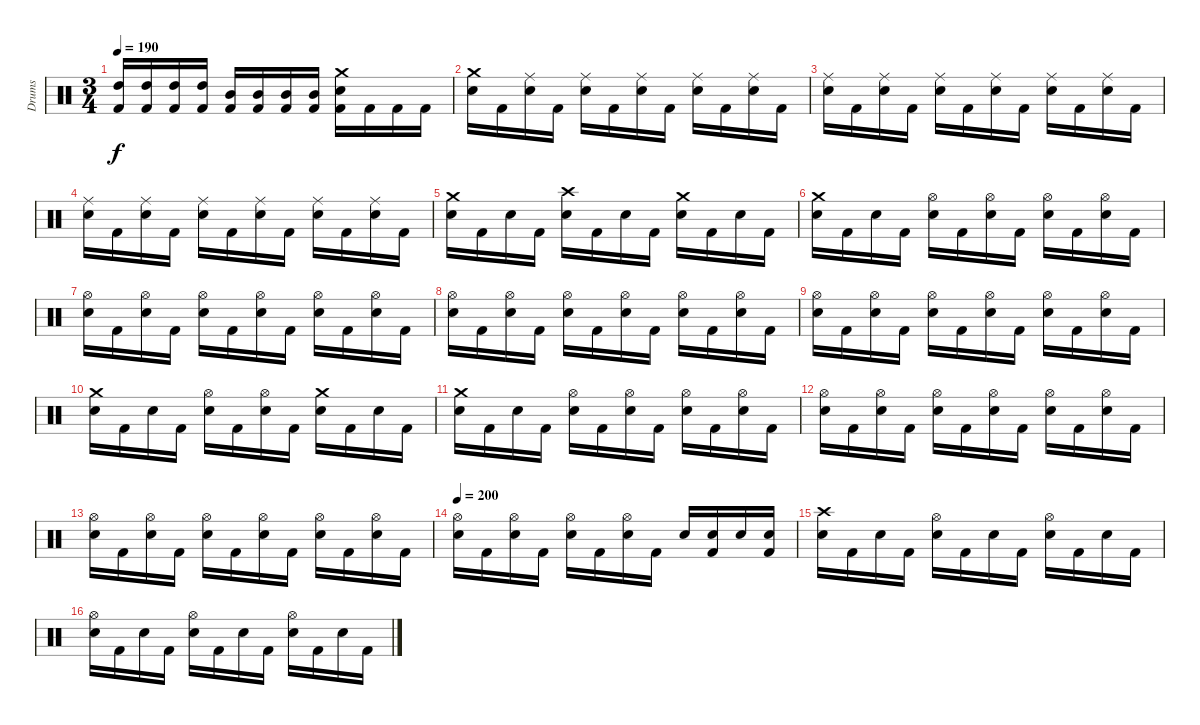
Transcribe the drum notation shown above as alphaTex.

\track ("Drums" "Drums") {instrument percussion}
\staff {score}
\articulation defaults
\ts (3 4)
\tempo 190
\clef neutral
\ks c
("Kick (hit) 2" "High Tom (hit)").16{dy f} ("Kick (hit) 2" "High Tom (hit)").16 ("Kick (hit) 2" "High Tom (hit)").16 ("Kick (hit) 2" "High Tom (hit)").16 ("Kick (hit) 2" "Mid Tom (hit)").16 ("Kick (hit) 2" "Mid Tom (hit)").16 ("Kick (hit) 2" "Mid Tom (hit)").16 ("Kick (hit) 2" "Mid Tom (hit)").16 ("Kick (hit) 2" "Snare (hit) 2" "Crash medium (hit)").16 "Kick (hit) 2".16 "Kick (hit) 2".16 "Kick (hit) 2".16 |
("Snare (hit) 2" "Crash medium (hit)").16 "Kick (hit) 2".16 ("Snare (hit) 2" "Ride (middle)").16 "Kick (hit) 2".16 ("Snare (hit) 2" "Ride (middle)").16 "Kick (hit) 2".16 ("Snare (hit) 2" "Ride (middle)").16 "Kick (hit) 2".16 ("Snare (hit) 2" "Ride (middle)").16 "Kick (hit) 2".16 ("Snare (hit) 2" "Ride (middle)").16 "Kick (hit) 2".16 |
("Snare (hit) 2" "Ride (middle)").16 "Kick (hit) 2".16 ("Snare (hit) 2" "Ride (middle)").16 "Kick (hit) 2".16 ("Snare (hit) 2" "Ride (middle)").16 "Kick (hit) 2".16 ("Snare (hit) 2" "Ride (middle)").16 "Kick (hit) 2".16 ("Snare (hit) 2" "Ride (middle)").16 "Kick (hit) 2".16 ("Snare (hit) 2" "Ride (middle)").16 "Kick (hit) 2".16 |
("Snare (hit) 2" "Ride (middle)").16 "Kick (hit) 2".16 ("Snare (hit) 2" "Ride (middle)").16 "Kick (hit) 2".16 ("Snare (hit) 2" "Ride (middle)").16 "Kick (hit) 2".16 ("Snare (hit) 2" "Ride (middle)").16 "Kick (hit) 2".16 ("Snare (hit) 2" "Ride (middle)").16 "Kick (hit) 2".16 ("Snare (hit) 2" "Ride (middle)").16 "Kick (hit) 2".16 |
("Snare (hit) 2" "Crash medium (hit)").16 "Kick (hit) 2".16 "Snare (hit) 2".16 "Kick (hit) 2".16 ("Snare (hit) 2" "Crash high (hit)").16 "Kick (hit) 2".16 "Snare (hit) 2".16 "Kick (hit) 2".16 ("Snare (hit) 2" "Crash medium (hit)").16 "Kick (hit) 2".16 "Snare (hit) 2".16 "Kick (hit) 2".16 |
("Snare (hit) 2" "Crash medium (hit)").16 "Kick (hit) 2".16 "Snare (hit) 2".16 "Kick (hit) 2".16 ("Snare (hit) 2" "Hi-Hat (open)").16 "Kick (hit) 2".16 ("Snare (hit) 2" "Hi-Hat (open)").16 "Kick (hit) 2".16 ("Snare (hit) 2" "Hi-Hat (open)").16 "Kick (hit) 2".16 ("Snare (hit) 2" "Hi-Hat (open)").16 "Kick (hit) 2".16 |
("Snare (hit) 2" "Hi-Hat (open)").16 "Kick (hit) 2".16 ("Snare (hit) 2" "Hi-Hat (open)").16 "Kick (hit) 2".16 ("Snare (hit) 2" "Hi-Hat (open)").16 "Kick (hit) 2".16 ("Snare (hit) 2" "Hi-Hat (open)").16 "Kick (hit) 2".16 ("Snare (hit) 2" "Hi-Hat (open)").16 "Kick (hit) 2".16 ("Snare (hit) 2" "Hi-Hat (open)").16 "Kick (hit) 2".16 |
("Snare (hit) 2" "Hi-Hat (open)").16 "Kick (hit) 2".16 ("Snare (hit) 2" "Hi-Hat (open)").16 "Kick (hit) 2".16 ("Snare (hit) 2" "Hi-Hat (open)").16 "Kick (hit) 2".16 ("Snare (hit) 2" "Hi-Hat (open)").16 "Kick (hit) 2".16 ("Snare (hit) 2" "Hi-Hat (open)").16 "Kick (hit) 2".16 ("Snare (hit) 2" "Hi-Hat (open)").16 "Kick (hit) 2".16 |
("Snare (hit) 2" "Hi-Hat (open)").16 "Kick (hit) 2".16 ("Snare (hit) 2" "Hi-Hat (open)").16 "Kick (hit) 2".16 ("Snare (hit) 2" "Hi-Hat (open)").16 "Kick (hit) 2".16 ("Snare (hit) 2" "Hi-Hat (open)").16 "Kick (hit) 2".16 ("Snare (hit) 2" "Hi-Hat (open)").16 "Kick (hit) 2".16 ("Snare (hit) 2" "Hi-Hat (open)").16 "Kick (hit) 2".16 |
("Snare (hit) 2" "Crash medium (hit)").16 "Kick (hit) 2".16 "Snare (hit) 2".16 "Kick (hit) 2".16 ("Snare (hit) 2" "Hi-Hat (open)").16 "Kick (hit) 2".16 ("Snare (hit) 2" "Hi-Hat (open)").16 "Kick (hit) 2".16 ("Snare (hit) 2" "Crash medium (hit)").16 "Kick (hit) 2".16 "Snare (hit) 2".16 "Kick (hit) 2".16 |
("Snare (hit) 2" "Crash medium (hit)").16 "Kick (hit) 2".16 "Snare (hit) 2".16 "Kick (hit) 2".16 ("Snare (hit) 2" "Hi-Hat (open)").16 "Kick (hit) 2".16 ("Snare (hit) 2" "Hi-Hat (open)").16 "Kick (hit) 2".16 ("Snare (hit) 2" "Hi-Hat (open)").16 "Kick (hit) 2".16 ("Snare (hit) 2" "Hi-Hat (open)").16 "Kick (hit) 2".16 |
("Snare (hit) 2" "Hi-Hat (open)").16 "Kick (hit) 2".16 ("Snare (hit) 2" "Hi-Hat (open)").16 "Kick (hit) 2".16 ("Snare (hit) 2" "Hi-Hat (open)").16 "Kick (hit) 2".16 ("Snare (hit) 2" "Hi-Hat (open)").16 "Kick (hit) 2".16 ("Snare (hit) 2" "Hi-Hat (open)").16 "Kick (hit) 2".16 ("Snare (hit) 2" "Hi-Hat (open)").16 "Kick (hit) 2".16 |
("Snare (hit) 2" "Hi-Hat (open)").16 "Kick (hit) 2".16 ("Snare (hit) 2" "Hi-Hat (open)").16 "Kick (hit) 2".16 ("Snare (hit) 2" "Hi-Hat (open)").16 "Kick (hit) 2".16 ("Snare (hit) 2" "Hi-Hat (open)").16 "Kick (hit) 2".16 ("Snare (hit) 2" "Hi-Hat (open)").16 "Kick (hit) 2".16 ("Snare (hit) 2" "Hi-Hat (open)").16 "Kick (hit) 2".16 |
\tempo 200
("Snare (hit) 2" "Hi-Hat (open)").16 "Kick (hit) 2".16 ("Snare (hit) 2" "Hi-Hat (open)").16 "Kick (hit) 2".16 ("Snare (hit) 2" "Hi-Hat (open)").16 "Kick (hit) 2".16 ("Snare (hit) 2" "Hi-Hat (open)").16 "Kick (hit) 2".16 "Snare (hit) 2".16 ("Kick (hit) 2" "Snare (hit) 2").16 "Snare (hit) 2".16 ("Kick (hit) 2" "Snare (hit) 2").16 |
("Snare (hit) 2" "Crash high (hit)").16 "Kick (hit) 2".16 "Snare (hit) 2".16 "Kick (hit) 2".16 ("Snare (hit) 2" "Hi-Hat (open)").16 "Kick (hit) 2".16 "Snare (hit) 2".16 "Kick (hit) 2".16 ("Snare (hit) 2" "Hi-Hat (open)").16 "Kick (hit) 2".16 "Snare (hit) 2".16 "Kick (hit) 2".16 |
("Snare (hit) 2" "Hi-Hat (open)").16 "Kick (hit) 2".16 "Snare (hit) 2".16 "Kick (hit) 2".16 ("Snare (hit) 2" "Hi-Hat (open)").16 "Kick (hit) 2".16 "Snare (hit) 2".16 "Kick (hit) 2".16 ("Snare (hit) 2" "Hi-Hat (open)").16 "Kick (hit) 2".16 "Snare (hit) 2".16 "Kick (hit) 2".16
